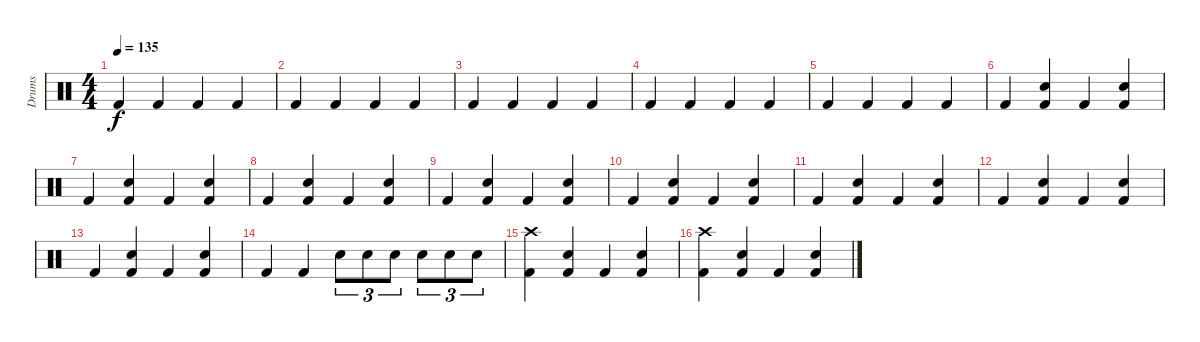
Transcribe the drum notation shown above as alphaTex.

\track ("Drums" "Drums") {instrument percussion}
\staff {score}
\articulation defaults
\ts (4 4)
\tempo 135
\clef neutral
\ks c "Kick (hit) 2".4{dy f} "Kick (hit) 2".4 "Kick (hit) 2".4 "Kick (hit) 2".4
|
"Kick (hit) 2".4 "Kick (hit) 2".4 "Kick (hit) 2".4 "Kick (hit) 2".4 |
"Kick (hit) 2".4 "Kick (hit) 2".4 "Kick (hit) 2".4 "Kick (hit) 2".4 |
"Kick (hit) 2".4 "Kick (hit) 2".4 "Kick (hit) 2".4 "Kick (hit) 2".4 |
"Kick (hit) 2".4 "Kick (hit) 2".4 "Kick (hit) 2".4 "Kick (hit) 2".4 |
"Kick (hit) 2".4 ("Snare (hit) 2" "Kick (hit) 2").4 "Kick (hit) 2".4 ("Snare (hit) 2" "Kick (hit) 2").4 |
"Kick (hit) 2".4 ("Snare (hit) 2" "Kick (hit) 2").4 "Kick (hit) 2".4 ("Snare (hit) 2" "Kick (hit) 2").4 |
"Kick (hit) 2".4 ("Snare (hit) 2" "Kick (hit) 2").4 "Kick (hit) 2".4 ("Snare (hit) 2" "Kick (hit) 2").4 |
"Kick (hit) 2".4 ("Snare (hit) 2" "Kick (hit) 2").4 "Kick (hit) 2".4 ("Snare (hit) 2" "Kick (hit) 2").4 |
"Kick (hit) 2".4 ("Snare (hit) 2" "Kick (hit) 2").4 "Kick (hit) 2".4 ("Snare (hit) 2" "Kick (hit) 2").4 |
"Kick (hit) 2".4 ("Snare (hit) 2" "Kick (hit) 2").4 "Kick (hit) 2".4 ("Snare (hit) 2" "Kick (hit) 2").4 |
"Kick (hit) 2".4 ("Snare (hit) 2" "Kick (hit) 2").4 "Kick (hit) 2".4 ("Snare (hit) 2" "Kick (hit) 2").4 |
"Kick (hit) 2".4 ("Snare (hit) 2" "Kick (hit) 2").4 "Kick (hit) 2".4 ("Snare (hit) 2" "Kick (hit) 2").4 |
"Kick (hit) 2".4 "Kick (hit) 2".4 "Snare (hit) 2".8{tu (3 2)} "Snare (hit) 2".8{tu (3 2)} "Snare (hit) 2".8{tu (3 2)} "Snare (hit) 2".8{tu (3 2)} "Snare (hit) 2".8{tu (3 2)} "Snare (hit) 2".8{tu (3 2)} |
("Crash high (hit)" "Kick (hit) 2").4 ("Snare (hit) 2" "Kick (hit) 2").4 "Kick (hit) 2".4 ("Snare (hit) 2" "Kick (hit) 2").4 |
("Crash high (hit)" "Kick (hit) 2").4 ("Snare (hit) 2" "Kick (hit) 2").4 "Kick (hit) 2".4 ("Snare (hit) 2" "Kick (hit) 2").4
